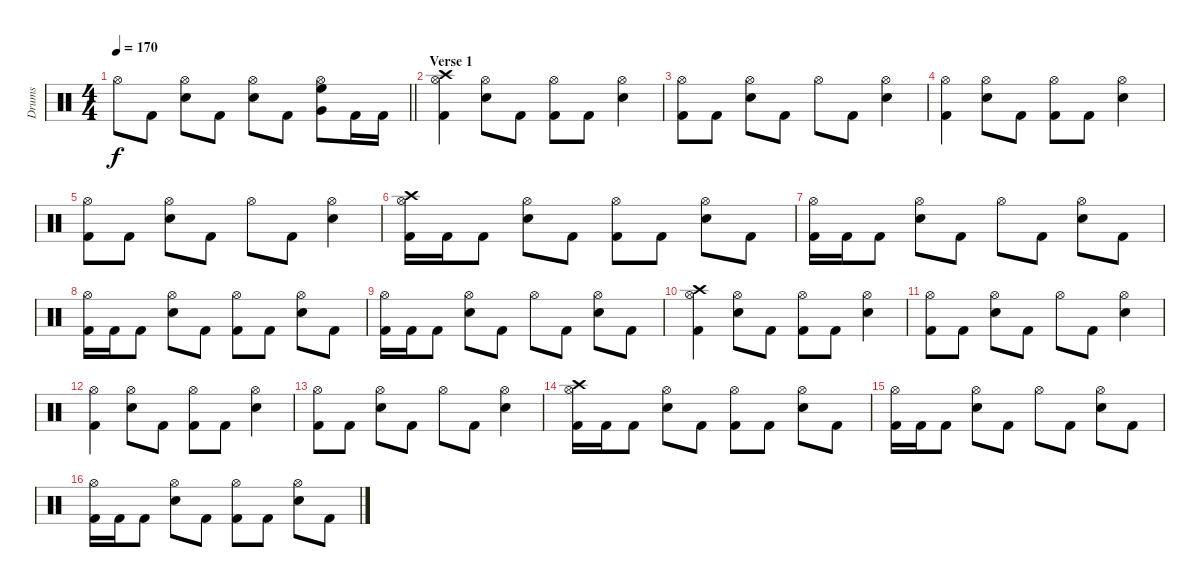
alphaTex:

\track ("Drums" "Drums") {instrument percussion}
\staff {score}
\articulation defaults
\ts (4 4)
\tempo 170
\clef neutral
\barLineRight lightlight
\ks c "Hi-Hat (open)".8{dy f} "Kick (hit) 2".8
("Hi-Hat (open)" "Electric Snare (hit)").8 "Kick (hit) 2".8 ("Hi-Hat (open)" "Electric Snare (hit)").8 "Kick (hit) 2".8 ("Hi-Hat (open)" "High Floor Tom (hit)" "Very Low Tom (hit)").8 "Kick (hit) 2".16 "Kick (hit) 2".16 |
\section ("" "Verse 1")
("Crash high (hit)" "Hi-Hat (open)" "Kick (hit) 2").4 ("Hi-Hat (open)" "Electric Snare (hit)").8 "Kick (hit) 2".8 ("Hi-Hat (open)" "Kick (hit) 2").8 "Kick (hit) 2".8 ("Hi-Hat (open)" "Electric Snare (hit)").4 |
("Hi-Hat (open)" "Kick (hit) 2").8 "Kick (hit) 2".8 ("Hi-Hat (open)" "Electric Snare (hit)").8 "Kick (hit) 2".8 "Hi-Hat (open)".8 "Kick (hit) 2".8 ("Hi-Hat (open)" "Electric Snare (hit)").4 |
("Hi-Hat (open)" "Kick (hit) 2").4 ("Hi-Hat (open)" "Electric Snare (hit)").8 "Kick (hit) 2".8 ("Hi-Hat (open)" "Kick (hit) 2").8 "Kick (hit) 2".8 ("Hi-Hat (open)" "Electric Snare (hit)").4 |
("Hi-Hat (open)" "Kick (hit) 2").8 "Kick (hit) 2".8 ("Hi-Hat (open)" "Electric Snare (hit)").8 "Kick (hit) 2".8 "Hi-Hat (open)".8 "Kick (hit) 2".8 ("Hi-Hat (open)" "Electric Snare (hit)").4 |
("Crash high (hit)" "Hi-Hat (open)" "Kick (hit) 2").16 "Kick (hit) 2".16 "Kick (hit) 2".8 ("Hi-Hat (open)" "Electric Snare (hit)").8 "Kick (hit) 2".8 ("Hi-Hat (open)" "Kick (hit) 2").8 "Kick (hit) 2".8 ("Hi-Hat (open)" "Electric Snare (hit)").8 "Kick (hit) 2".8 |
("Hi-Hat (open)" "Kick (hit) 2").16 "Kick (hit) 2".16 "Kick (hit) 2".8 ("Hi-Hat (open)" "Electric Snare (hit)").8 "Kick (hit) 2".8 "Hi-Hat (open)".8 "Kick (hit) 2".8 ("Hi-Hat (open)" "Electric Snare (hit)").8 "Kick (hit) 2".8 |
("Hi-Hat (open)" "Kick (hit) 2").16 "Kick (hit) 2".16 "Kick (hit) 2".8 ("Hi-Hat (open)" "Electric Snare (hit)").8 "Kick (hit) 2".8 ("Hi-Hat (open)" "Kick (hit) 2").8 "Kick (hit) 2".8 ("Hi-Hat (open)" "Electric Snare (hit)").8 "Kick (hit) 2".8 |
("Hi-Hat (open)" "Kick (hit) 2").16 "Kick (hit) 2".16 "Kick (hit) 2".8 ("Hi-Hat (open)" "Electric Snare (hit)").8 "Kick (hit) 2".8 "Hi-Hat (open)".8 "Kick (hit) 2".8 ("Hi-Hat (open)" "Electric Snare (hit)").8 "Kick (hit) 2".8 |
("Crash high (hit)" "Hi-Hat (open)" "Kick (hit) 2").4 ("Hi-Hat (open)" "Electric Snare (hit)").8 "Kick (hit) 2".8 ("Hi-Hat (open)" "Kick (hit) 2").8 "Kick (hit) 2".8 ("Hi-Hat (open)" "Electric Snare (hit)").4 |
("Hi-Hat (open)" "Kick (hit) 2").8 "Kick (hit) 2".8 ("Hi-Hat (open)" "Electric Snare (hit)").8 "Kick (hit) 2".8 "Hi-Hat (open)".8 "Kick (hit) 2".8 ("Hi-Hat (open)" "Electric Snare (hit)").4 |
("Hi-Hat (open)" "Kick (hit) 2").4 ("Hi-Hat (open)" "Electric Snare (hit)").8 "Kick (hit) 2".8 ("Hi-Hat (open)" "Kick (hit) 2").8 "Kick (hit) 2".8 ("Hi-Hat (open)" "Electric Snare (hit)").4 |
("Hi-Hat (open)" "Kick (hit) 2").8 "Kick (hit) 2".8 ("Hi-Hat (open)" "Electric Snare (hit)").8 "Kick (hit) 2".8 "Hi-Hat (open)".8 "Kick (hit) 2".8 ("Hi-Hat (open)" "Electric Snare (hit)").4 |
("Crash high (hit)" "Hi-Hat (open)" "Kick (hit) 2").16 "Kick (hit) 2".16 "Kick (hit) 2".8 ("Hi-Hat (open)" "Electric Snare (hit)").8 "Kick (hit) 2".8 ("Hi-Hat (open)" "Kick (hit) 2").8 "Kick (hit) 2".8 ("Hi-Hat (open)" "Electric Snare (hit)").8 "Kick (hit) 2".8 |
("Hi-Hat (open)" "Kick (hit) 2").16 "Kick (hit) 2".16 "Kick (hit) 2".8 ("Hi-Hat (open)" "Electric Snare (hit)").8 "Kick (hit) 2".8 "Hi-Hat (open)".8 "Kick (hit) 2".8 ("Hi-Hat (open)" "Electric Snare (hit)").8 "Kick (hit) 2".8 |
("Hi-Hat (open)" "Kick (hit) 2").16 "Kick (hit) 2".16 "Kick (hit) 2".8 ("Hi-Hat (open)" "Electric Snare (hit)").8 "Kick (hit) 2".8 ("Hi-Hat (open)" "Kick (hit) 2").8 "Kick (hit) 2".8 ("Hi-Hat (open)" "Electric Snare (hit)").8 "Kick (hit) 2".8
